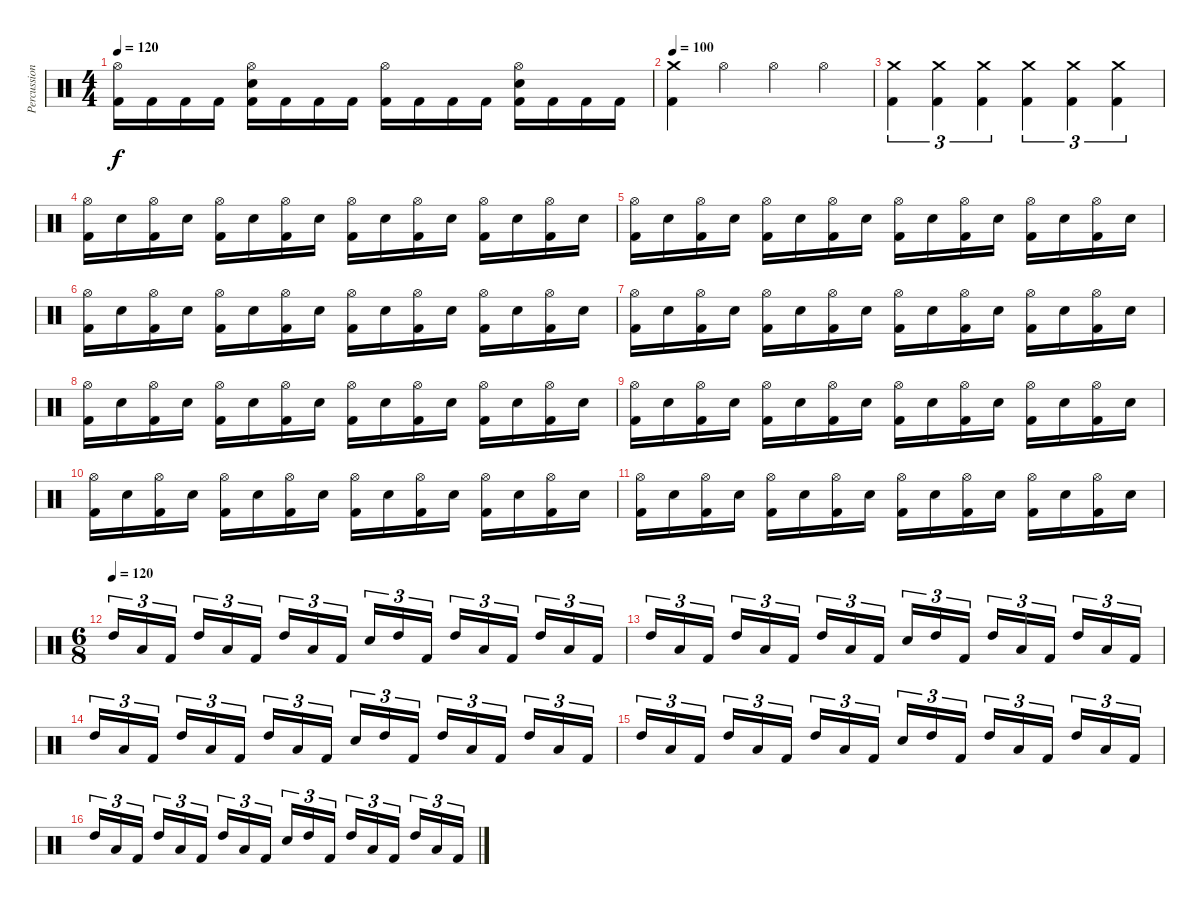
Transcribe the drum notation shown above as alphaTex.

\track ("Percussion" "Percussion") {instrument percussion}
\staff {score}
\articulation defaults
\ts (4 4)
\tempo 120
\clef neutral
\ks c
("Hi-Hat (open)" "Kick (hit) 2").16{dy f} "Kick (hit) 2".16 "Kick (hit) 2".16 "Kick (hit) 2".16 ("Hi-Hat (open)" "Electric Snare (hit)" "Kick (hit) 2").16 "Kick (hit) 2".16 "Kick (hit) 2".16 "Kick (hit) 2".16 ("Hi-Hat (open)" "Kick (hit) 2").16 "Kick (hit) 2".16 "Kick (hit) 2".16 "Kick (hit) 2".16 ("Hi-Hat (open)" "Electric Snare (hit)" "Kick (hit) 2").16 "Kick (hit) 2".16 "Kick (hit) 2".16 "Kick (hit) 2".16 |
\tempo 100
("Crash medium (hit)" "Kick (hit) 2").4 "Hi-Hat (open)".4 "Hi-Hat (open)".4 "Hi-Hat (open)".4 |
("Crash medium (hit)" "Kick (hit) 2").4{tu (3 2)} ("Crash medium (hit)" "Kick (hit) 2").4{tu (3 2)} ("Crash medium (hit)" "Kick (hit) 2").4{tu (3 2)} ("Crash medium (hit)" "Kick (hit) 2").4{tu (3 2)} ("Crash medium (hit)" "Kick (hit) 2").4{tu (3 2)} ("Crash medium (hit)" "Kick (hit) 2").4{tu (3 2)} |
("Hi-Hat (open)" "Kick (hit) 2").16 "Electric Snare (hit)".16 ("Hi-Hat (open)" "Kick (hit) 2").16 "Electric Snare (hit)".16 ("Hi-Hat (open)" "Kick (hit) 2").16 "Electric Snare (hit)".16 ("Hi-Hat (open)" "Kick (hit) 2").16 "Electric Snare (hit)".16 ("Hi-Hat (open)" "Kick (hit) 2").16 "Electric Snare (hit)".16 ("Hi-Hat (open)" "Kick (hit) 2").16 "Electric Snare (hit)".16 ("Hi-Hat (open)" "Kick (hit) 2").16 "Electric Snare (hit)".16 ("Hi-Hat (open)" "Kick (hit) 2").16 "Electric Snare (hit)".16 |
("Hi-Hat (open)" "Kick (hit) 2").16 "Electric Snare (hit)".16 ("Hi-Hat (open)" "Kick (hit) 2").16 "Electric Snare (hit)".16 ("Hi-Hat (open)" "Kick (hit) 2").16 "Electric Snare (hit)".16 ("Hi-Hat (open)" "Kick (hit) 2").16 "Electric Snare (hit)".16 ("Hi-Hat (open)" "Kick (hit) 2").16 "Electric Snare (hit)".16 ("Hi-Hat (open)" "Kick (hit) 2").16 "Electric Snare (hit)".16 ("Hi-Hat (open)" "Kick (hit) 2").16 "Electric Snare (hit)".16 ("Hi-Hat (open)" "Kick (hit) 2").16 "Electric Snare (hit)".16 |
("Hi-Hat (open)" "Kick (hit) 2").16 "Electric Snare (hit)".16 ("Hi-Hat (open)" "Kick (hit) 2").16 "Electric Snare (hit)".16 ("Hi-Hat (open)" "Kick (hit) 2").16 "Electric Snare (hit)".16 ("Hi-Hat (open)" "Kick (hit) 2").16 "Electric Snare (hit)".16 ("Hi-Hat (open)" "Kick (hit) 2").16 "Electric Snare (hit)".16 ("Hi-Hat (open)" "Kick (hit) 2").16 "Electric Snare (hit)".16 ("Hi-Hat (open)" "Kick (hit) 2").16 "Electric Snare (hit)".16 ("Hi-Hat (open)" "Kick (hit) 2").16 "Electric Snare (hit)".16 |
("Hi-Hat (open)" "Kick (hit) 2").16 "Electric Snare (hit)".16 ("Hi-Hat (open)" "Kick (hit) 2").16 "Electric Snare (hit)".16 ("Hi-Hat (open)" "Kick (hit) 2").16 "Electric Snare (hit)".16 ("Hi-Hat (open)" "Kick (hit) 2").16 "Electric Snare (hit)".16 ("Hi-Hat (open)" "Kick (hit) 2").16 "Electric Snare (hit)".16 ("Hi-Hat (open)" "Kick (hit) 2").16 "Electric Snare (hit)".16 ("Hi-Hat (open)" "Kick (hit) 2").16 "Electric Snare (hit)".16 ("Hi-Hat (open)" "Kick (hit) 2").16 "Electric Snare (hit)".16 |
("Hi-Hat (open)" "Kick (hit) 2").16 "Electric Snare (hit)".16 ("Hi-Hat (open)" "Kick (hit) 2").16 "Electric Snare (hit)".16 ("Hi-Hat (open)" "Kick (hit) 2").16 "Electric Snare (hit)".16 ("Hi-Hat (open)" "Kick (hit) 2").16 "Electric Snare (hit)".16 ("Hi-Hat (open)" "Kick (hit) 2").16 "Electric Snare (hit)".16 ("Hi-Hat (open)" "Kick (hit) 2").16 "Electric Snare (hit)".16 ("Hi-Hat (open)" "Kick (hit) 2").16 "Electric Snare (hit)".16 ("Hi-Hat (open)" "Kick (hit) 2").16 "Electric Snare (hit)".16 |
("Hi-Hat (open)" "Kick (hit) 2").16 "Electric Snare (hit)".16 ("Hi-Hat (open)" "Kick (hit) 2").16 "Electric Snare (hit)".16 ("Hi-Hat (open)" "Kick (hit) 2").16 "Electric Snare (hit)".16 ("Hi-Hat (open)" "Kick (hit) 2").16 "Electric Snare (hit)".16 ("Hi-Hat (open)" "Kick (hit) 2").16 "Electric Snare (hit)".16 ("Hi-Hat (open)" "Kick (hit) 2").16 "Electric Snare (hit)".16 ("Hi-Hat (open)" "Kick (hit) 2").16 "Electric Snare (hit)".16 ("Hi-Hat (open)" "Kick (hit) 2").16 "Electric Snare (hit)".16 |
("Hi-Hat (open)" "Kick (hit) 2").16 "Electric Snare (hit)".16 ("Hi-Hat (open)" "Kick (hit) 2").16 "Electric Snare (hit)".16 ("Hi-Hat (open)" "Kick (hit) 2").16 "Electric Snare (hit)".16 ("Hi-Hat (open)" "Kick (hit) 2").16 "Electric Snare (hit)".16 ("Hi-Hat (open)" "Kick (hit) 2").16 "Electric Snare (hit)".16 ("Hi-Hat (open)" "Kick (hit) 2").16 "Electric Snare (hit)".16 ("Hi-Hat (open)" "Kick (hit) 2").16 "Electric Snare (hit)".16 ("Hi-Hat (open)" "Kick (hit) 2").16 "Electric Snare (hit)".16 |
("Hi-Hat (open)" "Kick (hit) 2").16 "Electric Snare (hit)".16 ("Hi-Hat (open)" "Kick (hit) 2").16 "Electric Snare (hit)".16 ("Hi-Hat (open)" "Kick (hit) 2").16 "Electric Snare (hit)".16 ("Hi-Hat (open)" "Kick (hit) 2").16 "Electric Snare (hit)".16 ("Hi-Hat (open)" "Kick (hit) 2").16 "Electric Snare (hit)".16 ("Hi-Hat (open)" "Kick (hit) 2").16 "Electric Snare (hit)".16 ("Hi-Hat (open)" "Kick (hit) 2").16 "Electric Snare (hit)".16 ("Hi-Hat (open)" "Kick (hit) 2").16 "Electric Snare (hit)".16 |
\ts (6 8)
\tempo (120)
"High Tom (hit)".16{tu (3 2)} "Low Tom (hit)".16{tu (3 2)} "Kick (hit) 2".16{tu (3 2) beam splitsecondary} "High Tom (hit)".16{tu (3 2)} "Low Tom (hit)".16{tu (3 2)} "Kick (hit) 2".16{tu (3 2) beam splitsecondary} "High Tom (hit)".16{tu (3 2)} "Low Tom (hit)".16{tu (3 2)} "Kick (hit) 2".16{tu (3 2)} "Electric Snare (hit)".16{tu (3 2)} "High Tom (hit)".16{tu (3 2)} "Kick (hit) 2".16{tu (3 2) beam splitsecondary} "High Tom (hit)".16{tu (3 2)} "Low Tom (hit)".16{tu (3 2)} "Kick (hit) 2".16{tu (3 2) beam splitsecondary} "High Tom (hit)".16{tu (3 2)} "Low Tom (hit)".16{tu (3 2)} "Kick (hit) 2".16{tu (3 2)} |
"High Tom (hit)".16{tu (3 2)} "Low Tom (hit)".16{tu (3 2)} "Kick (hit) 2".16{tu (3 2) beam splitsecondary} "High Tom (hit)".16{tu (3 2)} "Low Tom (hit)".16{tu (3 2)} "Kick (hit) 2".16{tu (3 2) beam splitsecondary} "High Tom (hit)".16{tu (3 2)} "Low Tom (hit)".16{tu (3 2)} "Kick (hit) 2".16{tu (3 2)} "Electric Snare (hit)".16{tu (3 2)} "High Tom (hit)".16{tu (3 2)} "Kick (hit) 2".16{tu (3 2) beam splitsecondary} "High Tom (hit)".16{tu (3 2)} "Low Tom (hit)".16{tu (3 2)} "Kick (hit) 2".16{tu (3 2) beam splitsecondary} "High Tom (hit)".16{tu (3 2)} "Low Tom (hit)".16{tu (3 2)} "Kick (hit) 2".16{tu (3 2)} |
"High Tom (hit)".16{tu (3 2)} "Low Tom (hit)".16{tu (3 2)} "Kick (hit) 2".16{tu (3 2) beam splitsecondary} "High Tom (hit)".16{tu (3 2)} "Low Tom (hit)".16{tu (3 2)} "Kick (hit) 2".16{tu (3 2) beam splitsecondary} "High Tom (hit)".16{tu (3 2)} "Low Tom (hit)".16{tu (3 2)} "Kick (hit) 2".16{tu (3 2)} "Electric Snare (hit)".16{tu (3 2)} "High Tom (hit)".16{tu (3 2)} "Kick (hit) 2".16{tu (3 2) beam splitsecondary} "High Tom (hit)".16{tu (3 2)} "Low Tom (hit)".16{tu (3 2)} "Kick (hit) 2".16{tu (3 2) beam splitsecondary} "High Tom (hit)".16{tu (3 2)} "Low Tom (hit)".16{tu (3 2)} "Kick (hit) 2".16{tu (3 2)} |
"High Tom (hit)".16{tu (3 2)} "Low Tom (hit)".16{tu (3 2)} "Kick (hit) 2".16{tu (3 2) beam splitsecondary} "High Tom (hit)".16{tu (3 2)} "Low Tom (hit)".16{tu (3 2)} "Kick (hit) 2".16{tu (3 2) beam splitsecondary} "High Tom (hit)".16{tu (3 2)} "Low Tom (hit)".16{tu (3 2)} "Kick (hit) 2".16{tu (3 2)} "Electric Snare (hit)".16{tu (3 2)} "High Tom (hit)".16{tu (3 2)} "Kick (hit) 2".16{tu (3 2) beam splitsecondary} "High Tom (hit)".16{tu (3 2)} "Low Tom (hit)".16{tu (3 2)} "Kick (hit) 2".16{tu (3 2) beam splitsecondary} "High Tom (hit)".16{tu (3 2)} "Low Tom (hit)".16{tu (3 2)} "Kick (hit) 2".16{tu (3 2)} |
"High Tom (hit)".16{tu (3 2)} "Low Tom (hit)".16{tu (3 2)} "Kick (hit) 2".16{tu (3 2) beam splitsecondary} "High Tom (hit)".16{tu (3 2)} "Low Tom (hit)".16{tu (3 2)} "Kick (hit) 2".16{tu (3 2) beam splitsecondary} "High Tom (hit)".16{tu (3 2)} "Low Tom (hit)".16{tu (3 2)} "Kick (hit) 2".16{tu (3 2)} "Electric Snare (hit)".16{tu (3 2)} "High Tom (hit)".16{tu (3 2)} "Kick (hit) 2".16{tu (3 2) beam splitsecondary} "High Tom (hit)".16{tu (3 2)} "Low Tom (hit)".16{tu (3 2)} "Kick (hit) 2".16{tu (3 2) beam splitsecondary} "High Tom (hit)".16{tu (3 2)} "Low Tom (hit)".16{tu (3 2)} "Kick (hit) 2".16{tu (3 2)}
